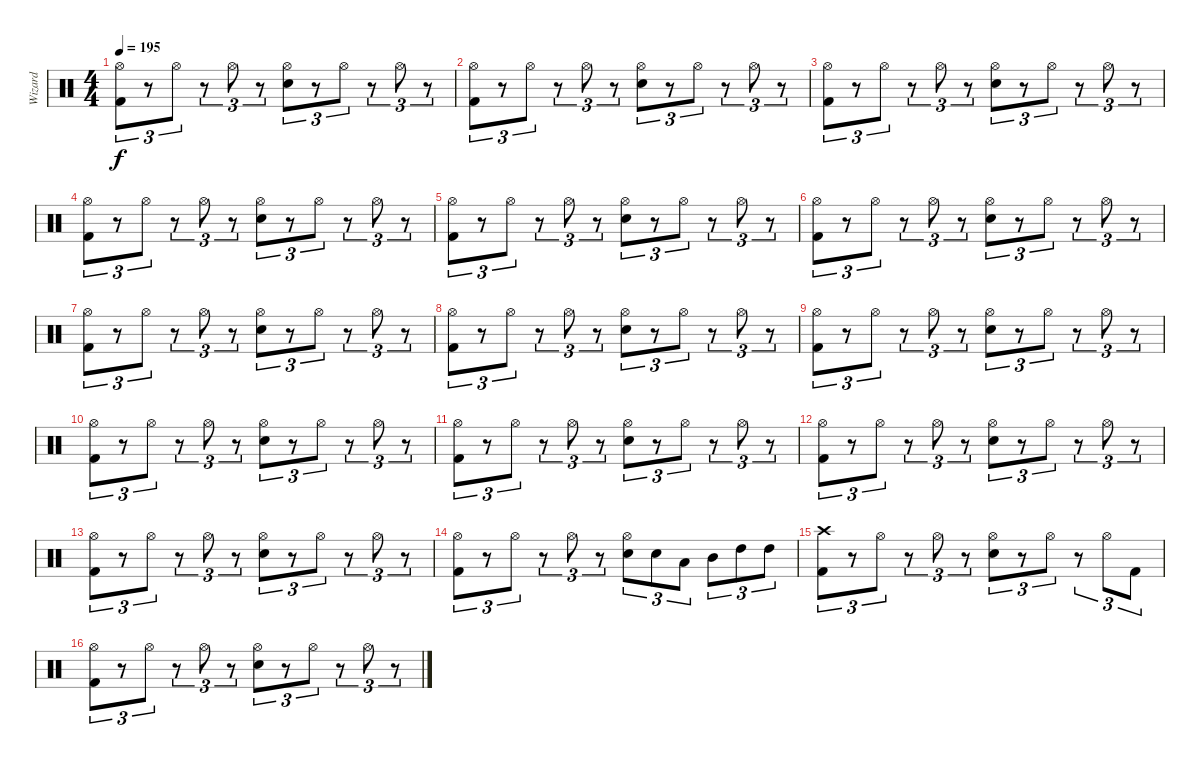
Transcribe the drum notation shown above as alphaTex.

\track ("Wizard" "Wizard") {instrument percussion}
\staff {score}
\articulation defaults
\ts (4 4)
\tempo 195
\clef neutral
\ks c
("Hi-Hat (open)" "Kick (hit) 2").8{tu (3 2) dy f} r.8{tu (3 2)} "Hi-Hat (open)".8{tu (3 2)} r.8{tu (3 2)} "Hi-Hat (open)".8{tu (3 2)} r.8{tu (3 2)} ("Hi-Hat (open)" "Snare (hit) 2").8{tu (3 2)} r.8{tu (3 2)} "Hi-Hat (open)".8{tu (3 2)} r.8{tu (3 2)} "Hi-Hat (open)".8{tu (3 2)} r.8{tu (3 2)} |
("Hi-Hat (open)" "Kick (hit) 2").8{tu (3 2)} r.8{tu (3 2)} "Hi-Hat (open)".8{tu (3 2)} r.8{tu (3 2)} "Hi-Hat (open)".8{tu (3 2)} r.8{tu (3 2)} ("Hi-Hat (open)" "Snare (hit) 2").8{tu (3 2)} r.8{tu (3 2)} "Hi-Hat (open)".8{tu (3 2)} r.8{tu (3 2)} "Hi-Hat (open)".8{tu (3 2)} r.8{tu (3 2)} |
("Hi-Hat (open)" "Kick (hit) 2").8{tu (3 2)} r.8{tu (3 2)} "Hi-Hat (open)".8{tu (3 2)} r.8{tu (3 2)} "Hi-Hat (open)".8{tu (3 2)} r.8{tu (3 2)} ("Hi-Hat (open)" "Snare (hit) 2").8{tu (3 2)} r.8{tu (3 2)} "Hi-Hat (open)".8{tu (3 2)} r.8{tu (3 2)} "Hi-Hat (open)".8{tu (3 2)} r.8{tu (3 2)} |
("Hi-Hat (open)" "Kick (hit) 2").8{tu (3 2)} r.8{tu (3 2)} "Hi-Hat (open)".8{tu (3 2)} r.8{tu (3 2)} "Hi-Hat (open)".8{tu (3 2)} r.8{tu (3 2)} ("Hi-Hat (open)" "Snare (hit) 2").8{tu (3 2)} r.8{tu (3 2)} "Hi-Hat (open)".8{tu (3 2)} r.8{tu (3 2)} "Hi-Hat (open)".8{tu (3 2)} r.8{tu (3 2)} |
("Hi-Hat (open)" "Kick (hit) 2").8{tu (3 2)} r.8{tu (3 2)} "Hi-Hat (open)".8{tu (3 2)} r.8{tu (3 2)} "Hi-Hat (open)".8{tu (3 2)} r.8{tu (3 2)} ("Hi-Hat (open)" "Snare (hit) 2").8{tu (3 2)} r.8{tu (3 2)} "Hi-Hat (open)".8{tu (3 2)} r.8{tu (3 2)} "Hi-Hat (open)".8{tu (3 2)} r.8{tu (3 2)} |
("Hi-Hat (open)" "Kick (hit) 2").8{tu (3 2)} r.8{tu (3 2)} "Hi-Hat (open)".8{tu (3 2)} r.8{tu (3 2)} "Hi-Hat (open)".8{tu (3 2)} r.8{tu (3 2)} ("Hi-Hat (open)" "Snare (hit) 2").8{tu (3 2)} r.8{tu (3 2)} "Hi-Hat (open)".8{tu (3 2)} r.8{tu (3 2)} "Hi-Hat (open)".8{tu (3 2)} r.8{tu (3 2)} |
("Hi-Hat (open)" "Kick (hit) 2").8{tu (3 2)} r.8{tu (3 2)} "Hi-Hat (open)".8{tu (3 2)} r.8{tu (3 2)} "Hi-Hat (open)".8{tu (3 2)} r.8{tu (3 2)} ("Hi-Hat (open)" "Snare (hit) 2").8{tu (3 2)} r.8{tu (3 2)} "Hi-Hat (open)".8{tu (3 2)} r.8{tu (3 2)} "Hi-Hat (open)".8{tu (3 2)} r.8{tu (3 2)} |
("Hi-Hat (open)" "Kick (hit) 2").8{tu (3 2)} r.8{tu (3 2)} "Hi-Hat (open)".8{tu (3 2)} r.8{tu (3 2)} "Hi-Hat (open)".8{tu (3 2)} r.8{tu (3 2)} ("Hi-Hat (open)" "Snare (hit) 2").8{tu (3 2)} r.8{tu (3 2)} "Hi-Hat (open)".8{tu (3 2)} r.8{tu (3 2)} "Hi-Hat (open)".8{tu (3 2)} r.8{tu (3 2)} |
("Hi-Hat (open)" "Kick (hit) 2").8{tu (3 2)} r.8{tu (3 2)} "Hi-Hat (open)".8{tu (3 2)} r.8{tu (3 2)} "Hi-Hat (open)".8{tu (3 2)} r.8{tu (3 2)} ("Hi-Hat (open)" "Snare (hit) 2").8{tu (3 2)} r.8{tu (3 2)} "Hi-Hat (open)".8{tu (3 2)} r.8{tu (3 2)} "Hi-Hat (open)".8{tu (3 2)} r.8{tu (3 2)} |
("Hi-Hat (open)" "Kick (hit) 2").8{tu (3 2)} r.8{tu (3 2)} "Hi-Hat (open)".8{tu (3 2)} r.8{tu (3 2)} "Hi-Hat (open)".8{tu (3 2)} r.8{tu (3 2)} ("Hi-Hat (open)" "Snare (hit) 2").8{tu (3 2)} r.8{tu (3 2)} "Hi-Hat (open)".8{tu (3 2)} r.8{tu (3 2)} "Hi-Hat (open)".8{tu (3 2)} r.8{tu (3 2)} |
("Hi-Hat (open)" "Kick (hit) 2").8{tu (3 2)} r.8{tu (3 2)} "Hi-Hat (open)".8{tu (3 2)} r.8{tu (3 2)} "Hi-Hat (open)".8{tu (3 2)} r.8{tu (3 2)} ("Hi-Hat (open)" "Snare (hit) 2").8{tu (3 2)} r.8{tu (3 2)} "Hi-Hat (open)".8{tu (3 2)} r.8{tu (3 2)} "Hi-Hat (open)".8{tu (3 2)} r.8{tu (3 2)} |
("Hi-Hat (open)" "Kick (hit) 2").8{tu (3 2)} r.8{tu (3 2)} "Hi-Hat (open)".8{tu (3 2)} r.8{tu (3 2)} "Hi-Hat (open)".8{tu (3 2)} r.8{tu (3 2)} ("Hi-Hat (open)" "Snare (hit) 2").8{tu (3 2)} r.8{tu (3 2)} "Hi-Hat (open)".8{tu (3 2)} r.8{tu (3 2)} "Hi-Hat (open)".8{tu (3 2)} r.8{tu (3 2)} |
("Hi-Hat (open)" "Kick (hit) 2").8{tu (3 2)} r.8{tu (3 2)} "Hi-Hat (open)".8{tu (3 2)} r.8{tu (3 2)} "Hi-Hat (open)".8{tu (3 2)} r.8{tu (3 2)} ("Hi-Hat (open)" "Snare (hit) 2").8{tu (3 2)} r.8{tu (3 2)} "Hi-Hat (open)".8{tu (3 2)} r.8{tu (3 2)} "Hi-Hat (open)".8{tu (3 2)} r.8{tu (3 2)} |
("Hi-Hat (open)" "Kick (hit) 2").8{tu (3 2)} r.8{tu (3 2)} "Hi-Hat (open)".8{tu (3 2)} r.8{tu (3 2)} "Hi-Hat (open)".8{tu (3 2)} r.8{tu (3 2)} ("Hi-Hat (open)" "Snare (hit) 2").8{tu (3 2)} "Snare (hit) 2".8{tu (3 2)} "Low Tom (hit)".8{tu (3 2)} "Mid Tom (hit)".8{tu (3 2)} "High Tom (hit)".8{tu (3 2)} "High Tom (hit)".8{tu (3 2)} |
("Crash high (hit)" "Kick (hit) 2").8{tu (3 2)} r.8{tu (3 2)} "Hi-Hat (open)".8{tu (3 2)} r.8{tu (3 2)} "Hi-Hat (open)".8{tu (3 2)} r.8{tu (3 2)} ("Hi-Hat (open)" "Snare (hit) 2").8{tu (3 2)} r.8{tu (3 2)} "Hi-Hat (open)".8{tu (3 2)} r.8{tu (3 2)} "Hi-Hat (open)".8{tu (3 2)} "Kick (hit) 2".8{tu (3 2)} |
("Hi-Hat (open)" "Kick (hit) 2").8{tu (3 2)} r.8{tu (3 2)} "Hi-Hat (open)".8{tu (3 2)} r.8{tu (3 2)} "Hi-Hat (open)".8{tu (3 2)} r.8{tu (3 2)} ("Hi-Hat (open)" "Snare (hit) 2").8{tu (3 2)} r.8{tu (3 2)} "Hi-Hat (open)".8{tu (3 2)} r.8{tu (3 2)} "Hi-Hat (open)".8{tu (3 2)} r.8{tu (3 2)}
